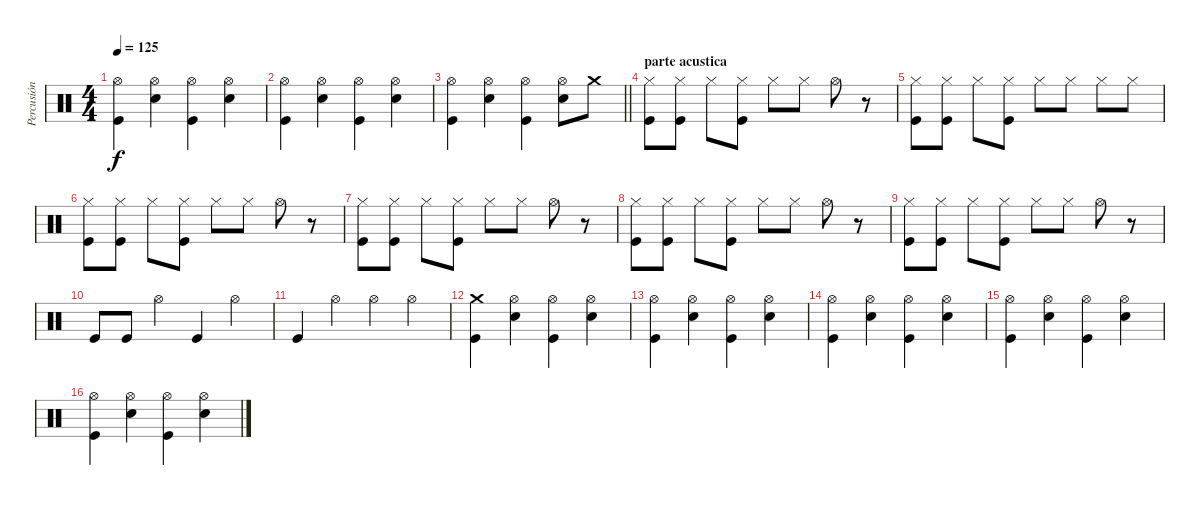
\track ("Percusión" "Percusión") {instrument percussion}
\staff {score}
\articulation defaults
\ts (4 4)
\tempo 125
\clef neutral
\ks c
("Hi-Hat (open)" "Kick (hit)").4{dy f} ("Hi-Hat (open)" "Electric Snare (hit)").4 ("Hi-Hat (open)" "Kick (hit)").4 ("Hi-Hat (open)" "Electric Snare (hit)").4 |
("Hi-Hat (open)" "Kick (hit)").4 ("Hi-Hat (open)" "Electric Snare (hit)").4 ("Hi-Hat (open)" "Kick (hit)").4 ("Hi-Hat (open)" "Electric Snare (hit)").4 |
\barLineRight lightlight
("Hi-Hat (open)" "Kick (hit)").4 ("Hi-Hat (open)" "Electric Snare (hit)").4 ("Hi-Hat (open)" "Kick (hit)").4 ("Hi-Hat (open)" "Electric Snare (hit)").8 "Crash medium (hit)".8 |
\section ("" "parte acustica")
("Hi-Hat (closed)" "Kick (hit)").8{volume 14} ("Hi-Hat (closed)" "Kick (hit)").8 "Hi-Hat (closed)".8 ("Hi-Hat (closed)" "Kick (hit)").8 "Hi-Hat (closed)".8 "Hi-Hat (closed)".8 "Hi-Hat (open)".8 r.8 |
("Hi-Hat (closed)" "Kick (hit)").8 ("Hi-Hat (closed)" "Kick (hit)").8 "Hi-Hat (closed)".8 ("Hi-Hat (closed)" "Kick (hit)").8 "Hi-Hat (closed)".8 "Hi-Hat (closed)".8 "Hi-Hat (closed)".8 "Hi-Hat (closed)".8 |
("Hi-Hat (closed)" "Kick (hit)").8{volume 14} ("Hi-Hat (closed)" "Kick (hit)").8 "Hi-Hat (closed)".8 ("Hi-Hat (closed)" "Kick (hit)").8 "Hi-Hat (closed)".8 "Hi-Hat (closed)".8 "Hi-Hat (open)".8 r.8 |
("Hi-Hat (closed)" "Kick (hit)").8{volume 14} ("Hi-Hat (closed)" "Kick (hit)").8 "Hi-Hat (closed)".8 ("Hi-Hat (closed)" "Kick (hit)").8 "Hi-Hat (closed)".8 "Hi-Hat (closed)".8 "Hi-Hat (open)".8 r.8 |
("Hi-Hat (closed)" "Kick (hit)").8{volume 14} ("Hi-Hat (closed)" "Kick (hit)").8 "Hi-Hat (closed)".8 ("Hi-Hat (closed)" "Kick (hit)").8 "Hi-Hat (closed)".8 "Hi-Hat (closed)".8 "Hi-Hat (open)".8 r.8 |
("Hi-Hat (closed)" "Kick (hit)").8{volume 14} ("Hi-Hat (closed)" "Kick (hit)").8 "Hi-Hat (closed)".8 ("Hi-Hat (closed)" "Kick (hit)").8 "Hi-Hat (closed)".8 "Hi-Hat (closed)".8 "Hi-Hat (open)".8 r.8 |
"Kick (hit)".8 "Kick (hit)".8 "Hi-Hat (open)".4 "Kick (hit)".4 "Hi-Hat (open)".4 |
"Kick (hit)".4 "Hi-Hat (open)".4 "Hi-Hat (open)".4 "Hi-Hat (open)".4 |
("Crash medium (hit)" "Kick (hit)").4 ("Hi-Hat (open)" "Electric Snare (hit)").4 ("Hi-Hat (open)" "Kick (hit)").4 ("Hi-Hat (open)" "Electric Snare (hit)").4 |
("Hi-Hat (open)" "Kick (hit)").4 ("Hi-Hat (open)" "Electric Snare (hit)").4 ("Hi-Hat (open)" "Kick (hit)").4 ("Hi-Hat (open)" "Electric Snare (hit)").4 |
("Hi-Hat (open)" "Kick (hit)").4 ("Hi-Hat (open)" "Electric Snare (hit)").4 ("Hi-Hat (open)" "Kick (hit)").4 ("Hi-Hat (open)" "Electric Snare (hit)").4 |
("Hi-Hat (open)" "Kick (hit)").4 ("Hi-Hat (open)" "Electric Snare (hit)").4 ("Hi-Hat (open)" "Kick (hit)").4 ("Hi-Hat (open)" "Electric Snare (hit)").4 |
("Hi-Hat (open)" "Kick (hit)").4 ("Hi-Hat (open)" "Electric Snare (hit)").4 ("Hi-Hat (open)" "Kick (hit)").4 ("Hi-Hat (open)" "Electric Snare (hit)").4
